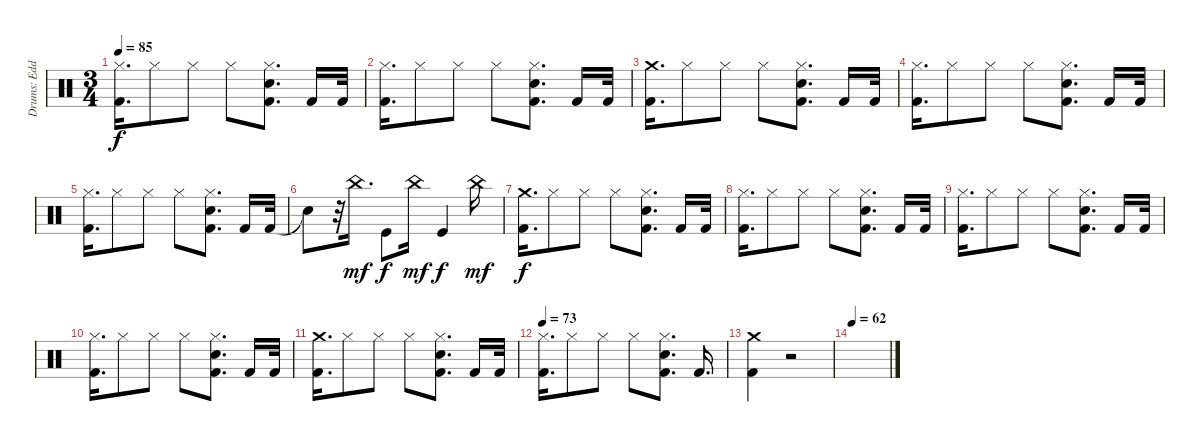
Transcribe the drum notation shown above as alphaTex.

\track ("Drums: Eddie Bayers" "Drums: Edd") {instrument percussion}
\staff {score}
\articulation defaults
\ts (3 4)
\tempo 85
\clef neutral
\ks c
("Hi-Hat (closed)" "Kick (hit) 2").16{d dy f} "Hi-Hat (closed)".8 "Hi-Hat (closed)".8 "Hi-Hat (closed)".8 ("Hi-Hat (closed)" "Snare (hit) 2" "Kick (hit) 2").8{d} "Kick (hit) 2".16 "Kick (hit) 2".32 |
("Hi-Hat (closed)" "Kick (hit) 2").16{d} "Hi-Hat (closed)".8 "Hi-Hat (closed)".8 "Hi-Hat (closed)".8 ("Hi-Hat (closed)" "Snare (hit) 2" "Kick (hit) 2").8{d} "Kick (hit) 2".16 "Kick (hit) 2".32 |
("Crash medium (hit)" "Kick (hit) 2").16{d} "Hi-Hat (closed)".8 "Hi-Hat (closed)".8 "Hi-Hat (closed)".8 ("Hi-Hat (closed)" "Snare (hit) 2" "Kick (hit) 2").8{d} "Kick (hit) 2".16 "Kick (hit) 2".32 |
("Hi-Hat (closed)" "Kick (hit) 2").16{d} "Hi-Hat (closed)".8 "Hi-Hat (closed)".8 "Hi-Hat (closed)".8 ("Hi-Hat (closed)" "Snare (hit) 2" "Kick (hit) 2").8{d} "Kick (hit) 2".16 "Kick (hit) 2".32 |
("Hi-Hat (closed)" "Kick (hit) 2").16{d} "Hi-Hat (closed)".8 "Hi-Hat (closed)".8 "Hi-Hat (closed)".8 ("Hi-Hat (closed)" "Snare (hit) 2" "Kick (hit) 2").8{d} "Kick (hit) 2".16 "Kick (hit) 2".32 |
"Snare (hit)"{t}.8 r.32 "China (hit)".16{d dy mf} "Kick (hit)".8{dy f} "China (hit)".16{dy mf} "Kick (hit)".4{dy f} "China (hit)".16{dy mf} |
("Crash medium (hit)" "Kick (hit) 2").16{d dy f} "Hi-Hat (closed)".8 "Hi-Hat (closed)".8 "Hi-Hat (closed)".8 ("Hi-Hat (closed)" "Snare (hit) 2" "Kick (hit) 2").8{d} "Kick (hit) 2".16 "Kick (hit) 2".32 |
("Hi-Hat (closed)" "Kick (hit) 2").16{d} "Hi-Hat (closed)".8 "Hi-Hat (closed)".8 "Hi-Hat (closed)".8 ("Hi-Hat (closed)" "Snare (hit) 2" "Kick (hit) 2").8{d} "Kick (hit) 2".16 "Kick (hit) 2".32 |
("Hi-Hat (closed)" "Kick (hit) 2").16{d} "Hi-Hat (closed)".8 "Hi-Hat (closed)".8 "Hi-Hat (closed)".8 ("Hi-Hat (closed)" "Snare (hit) 2" "Kick (hit) 2").8{d} "Kick (hit) 2".16 "Kick (hit) 2".32 |
("Hi-Hat (closed)" "Kick (hit) 2").16{d} "Hi-Hat (closed)".8 "Hi-Hat (closed)".8 "Hi-Hat (closed)".8 ("Hi-Hat (closed)" "Snare (hit) 2" "Kick (hit) 2").8{d} "Kick (hit) 2".16 "Kick (hit) 2".32 |
("Crash medium (hit)" "Kick (hit) 2").16{d} "Hi-Hat (closed)".8 "Hi-Hat (closed)".8 "Hi-Hat (closed)".8 ("Hi-Hat (closed)" "Snare (hit) 2" "Kick (hit) 2").8{d} "Kick (hit) 2".16 "Kick (hit) 2".32 |
\tempo 73
("Hi-Hat (closed)" "Kick (hit) 2").16{d} "Hi-Hat (closed)".8 "Hi-Hat (closed)".8 "Hi-Hat (closed)".8 ("Hi-Hat (closed)" "Snare (hit) 2" "Kick (hit) 2").8{d} "Kick (hit) 2".16{d} |
("Crash medium (hit)" "Kick (hit) 2").4 r.2 |
\tempo 62
